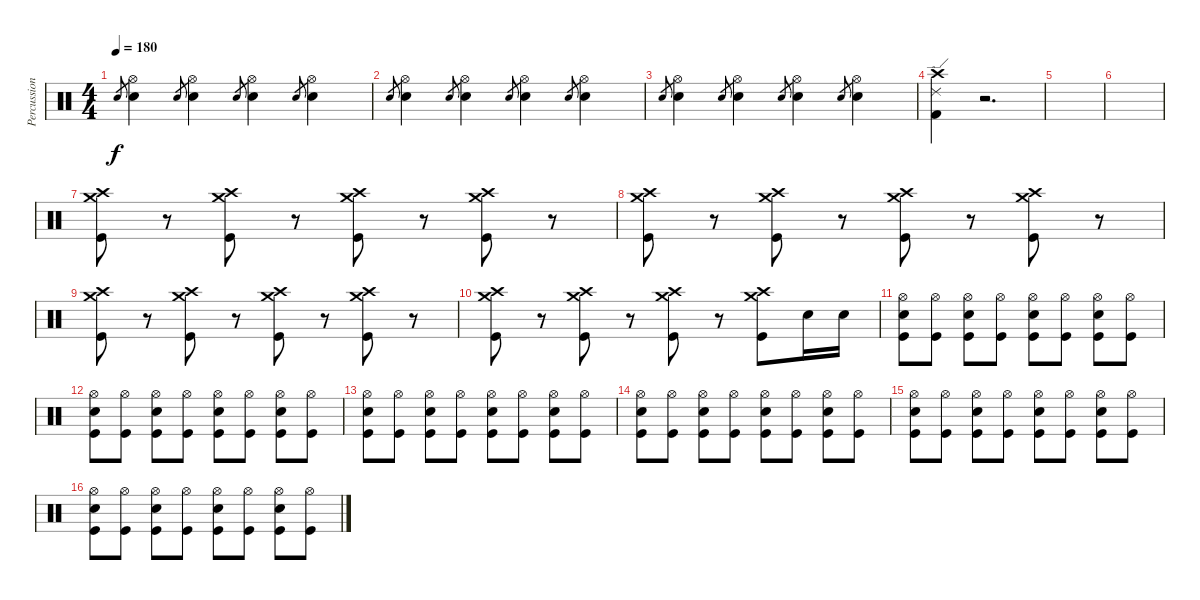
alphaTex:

\track ("Percussion" "Percussion") {instrument percussion}
\staff {score}
\articulation defaults
\ts (4 4)
\tempo 180
\clef neutral
\ks c "Snare (hit) 2".8{gr dy f}
("Hi-Hat (open)" "Snare (hit) 2").4 "Snare (hit) 2".8{gr} ("Hi-Hat (open)" "Snare (hit) 2").4 "Snare (hit) 2".8{gr} ("Hi-Hat (open)" "Snare (hit) 2").4 "Snare (hit) 2".8{gr} ("Hi-Hat (open)" "Snare (hit) 2").4 |
"Snare (hit) 2".8{gr} ("Hi-Hat (open)" "Snare (hit) 2").4 "Snare (hit) 2".8{gr} ("Hi-Hat (open)" "Snare (hit) 2").4 "Snare (hit) 2".8{gr} ("Hi-Hat (open)" "Snare (hit) 2").4 "Snare (hit) 2".8{gr} ("Hi-Hat (open)" "Snare (hit) 2").4 |
"Snare (hit) 2".8{gr} ("Hi-Hat (open)" "Snare (hit) 2").4 "Snare (hit) 2".8{gr} ("Hi-Hat (open)" "Snare (hit) 2").4 "Snare (hit) 2".8{gr} ("Hi-Hat (open)" "Snare (hit) 2").4 "Snare (hit) 2".8{gr} ("Hi-Hat (open)" "Snare (hit) 2").4 |
("Crash high (hit)" "Ride (edge) 2" "Kick (hit) 2").4 r.2{d} |
|
|
("Crash high (hit)" "Crash medium (hit)" "Kick (hit)").8 r.8 ("Crash high (hit)" "Crash medium (hit)" "Kick (hit)").8 r.8 ("Crash high (hit)" "Crash medium (hit)" "Kick (hit)").8 r.8 ("Crash high (hit)" "Crash medium (hit)" "Kick (hit)").8 r.8 |
("Crash high (hit)" "Crash medium (hit)" "Kick (hit)").8 r.8 ("Crash high (hit)" "Crash medium (hit)" "Kick (hit)").8 r.8 ("Crash high (hit)" "Crash medium (hit)" "Kick (hit)").8 r.8 ("Crash high (hit)" "Crash medium (hit)" "Kick (hit)").8 r.8 |
("Crash high (hit)" "Crash medium (hit)" "Kick (hit)").8 r.8 ("Crash high (hit)" "Crash medium (hit)" "Kick (hit)").8 r.8 ("Crash high (hit)" "Crash medium (hit)" "Kick (hit)").8 r.8 ("Crash high (hit)" "Crash medium (hit)" "Kick (hit)").8 r.8 |
("Crash high (hit)" "Crash medium (hit)" "Kick (hit)").8 r.8 ("Crash high (hit)" "Crash medium (hit)" "Kick (hit)").8 r.8 ("Crash high (hit)" "Crash medium (hit)" "Kick (hit)").8 r.8 ("Crash high (hit)" "Crash medium (hit)" "Kick (hit)").8 "Snare (hit) 2".16 "Snare (hit) 2".16 |
("Hi-Hat (open)" "Snare (hit) 2" "Kick (hit)").8 ("Hi-Hat (open)" "Kick (hit)").8 ("Hi-Hat (open)" "Snare (hit) 2" "Kick (hit)").8 ("Hi-Hat (open)" "Kick (hit)").8 ("Hi-Hat (open)" "Snare (hit) 2" "Kick (hit)").8 ("Hi-Hat (open)" "Kick (hit)").8 ("Hi-Hat (open)" "Snare (hit) 2" "Kick (hit)").8 ("Hi-Hat (open)" "Kick (hit)").8 |
("Hi-Hat (open)" "Snare (hit) 2" "Kick (hit)").8 ("Hi-Hat (open)" "Kick (hit)").8 ("Hi-Hat (open)" "Snare (hit) 2" "Kick (hit)").8 ("Hi-Hat (open)" "Kick (hit)").8 ("Hi-Hat (open)" "Snare (hit) 2" "Kick (hit)").8 ("Hi-Hat (open)" "Kick (hit)").8 ("Hi-Hat (open)" "Snare (hit) 2" "Kick (hit)").8 ("Hi-Hat (open)" "Kick (hit)").8 |
("Hi-Hat (open)" "Snare (hit) 2" "Kick (hit)").8 ("Hi-Hat (open)" "Kick (hit)").8 ("Hi-Hat (open)" "Snare (hit) 2" "Kick (hit)").8 ("Hi-Hat (open)" "Kick (hit)").8 ("Hi-Hat (open)" "Snare (hit) 2" "Kick (hit)").8 ("Hi-Hat (open)" "Kick (hit)").8 ("Hi-Hat (open)" "Snare (hit) 2" "Kick (hit)").8 ("Hi-Hat (open)" "Kick (hit)").8 |
("Hi-Hat (open)" "Snare (hit) 2" "Kick (hit)").8 ("Hi-Hat (open)" "Kick (hit)").8 ("Hi-Hat (open)" "Snare (hit) 2" "Kick (hit)").8 ("Hi-Hat (open)" "Kick (hit)").8 ("Hi-Hat (open)" "Snare (hit) 2" "Kick (hit)").8 ("Hi-Hat (open)" "Kick (hit)").8 ("Hi-Hat (open)" "Snare (hit) 2" "Kick (hit)").8 ("Hi-Hat (open)" "Kick (hit)").8 |
("Hi-Hat (open)" "Snare (hit) 2" "Kick (hit)").8 ("Hi-Hat (open)" "Kick (hit)").8 ("Hi-Hat (open)" "Snare (hit) 2" "Kick (hit)").8 ("Hi-Hat (open)" "Kick (hit)").8 ("Hi-Hat (open)" "Snare (hit) 2" "Kick (hit)").8 ("Hi-Hat (open)" "Kick (hit)").8 ("Hi-Hat (open)" "Snare (hit) 2" "Kick (hit)").8 ("Hi-Hat (open)" "Kick (hit)").8 |
("Hi-Hat (open)" "Snare (hit) 2" "Kick (hit)").8 ("Hi-Hat (open)" "Kick (hit)").8 ("Hi-Hat (open)" "Snare (hit) 2" "Kick (hit)").8 ("Hi-Hat (open)" "Kick (hit)").8 ("Hi-Hat (open)" "Snare (hit) 2" "Kick (hit)").8 ("Hi-Hat (open)" "Kick (hit)").8 ("Hi-Hat (open)" "Snare (hit) 2" "Kick (hit)").8 ("Hi-Hat (open)" "Kick (hit)").8
